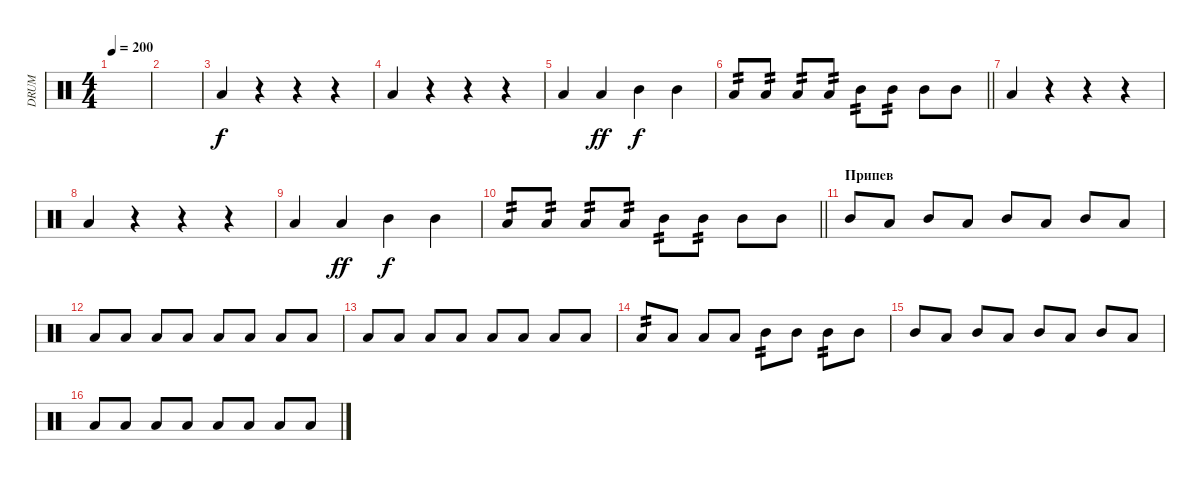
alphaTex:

\track ("DRUM" "DRUM") {instrument percussion}
\staff {score}
\articulation defaults
\ts (4 4)
\tempo 200
\clef neutral
\ks c
|
|
"Low Tom (hit)".4 r.4 r.4 r.4 |
"Low Tom (hit)".4 r.4 r.4 r.4 |
"Low Tom (hit)".4 "Low Floor Tom (hit)".4{dy ff} "Mid Tom (hit)".4{dy f} "Mid Tom (hit)".4 |
\barLineRight lightlight "Low Tom (hit)".8{tp 2} "Low Tom (hit)".8{tp 2} "Low Tom (hit)".8{tp 2} "Low Tom (hit)".8{tp 2} "Mid Tom (hit)".8{tp 2} "Mid Tom (hit)".8{tp 2} "Mid Tom (hit)".8 "Mid Tom (hit)".8
|
"Low Tom (hit)".4 r.4 r.4 r.4 |
"Low Tom (hit)".4 r.4 r.4 r.4 |
"Low Tom (hit)".4 "Low Floor Tom (hit)".4{dy ff} "Mid Tom (hit)".4{dy f} "Mid Tom (hit)".4 |
\barLineRight lightlight "Low Tom (hit)".8{tp 2} "Low Tom (hit)".8{tp 2} "Low Tom (hit)".8{tp 2} "Low Tom (hit)".8{tp 2} "Mid Tom (hit)".8{tp 2} "Mid Tom (hit)".8{tp 2} "Mid Tom (hit)".8 "Mid Tom (hit)".8
|
\section ("" "Припев")
"Mid Tom (hit)".8 "Low Tom (hit)".8 "Mid Tom (hit)".8 "Low Tom (hit)".8 "Mid Tom (hit)".8 "Low Tom (hit)".8 "Mid Tom (hit)".8 "Low Tom (hit)".8 |
"Low Tom (hit)".8 "Low Floor Tom (hit)".8 "Low Tom (hit)".8 "Low Floor Tom (hit)".8 "Low Tom (hit)".8 "Low Floor Tom (hit)".8 "Low Tom (hit)".8 "Low Floor Tom (hit)".8 |
"Low Tom (hit)".8 "Low Tom (hit)".8 "Low Tom (hit)".8 "Low Tom (hit)".8 "Low Tom (hit)".8 "Low Tom (hit)".8 "Low Tom (hit)".8 "Low Tom (hit)".8 |
"Low Tom (hit)".8{tp 2} "Low Tom (hit)".8 "Low Tom (hit)".8 "Low Tom (hit)".8 "Mid Tom (hit)".8{tp 2} "Mid Tom (hit)".8 "Mid Tom (hit)".8{tp 2} "Mid Tom (hit)".8 |
"Mid Tom (hit)".8 "Low Tom (hit)".8 "Mid Tom (hit)".8 "Low Tom (hit)".8 "Mid Tom (hit)".8 "Low Tom (hit)".8 "Mid Tom (hit)".8 "Low Tom (hit)".8 |
"Low Tom (hit)".8 "Low Floor Tom (hit)".8 "Low Tom (hit)".8 "Low Floor Tom (hit)".8 "Low Tom (hit)".8 "Low Floor Tom (hit)".8 "Low Tom (hit)".8 "Low Floor Tom (hit)".8
